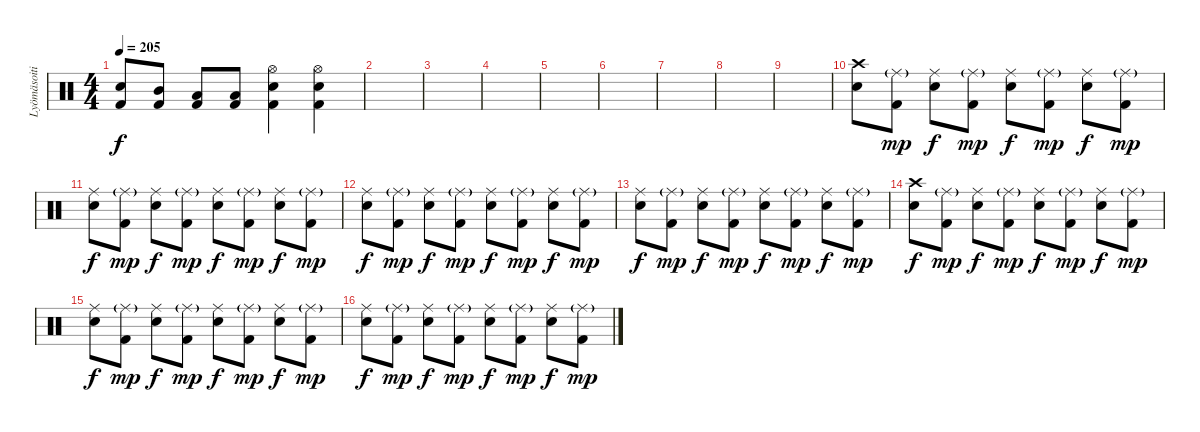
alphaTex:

\track ("Lyömäsoitin" "Lyömäsoiti") {instrument percussion}
\staff {score}
\articulation defaults
\ts (4 4)
\tempo 205
\clef neutral
\ks c
("Kick (hit) 2" "Electric Snare (hit)").8{dy f} ("Kick (hit) 2" "Mid Tom (hit)").8 ("Kick (hit) 2" "Low Tom (hit)").8 ("Kick (hit) 2" "Low Floor Tom (hit)").8 ("Kick (hit) 2" "Electric Snare (hit)" "Hi-Hat (open)").4 ("Kick (hit) 2" "Electric Snare (hit)" "Hi-Hat (open)").4 |
|
|
|
|
|
|
|
|
("Electric Snare (hit)" "Crash high (hit)").8 ("Kick (hit) 2" "Ride (middle)"{g}).8{dy mp} ("Electric Snare (hit)" "Ride (middle)").8{dy f} ("Kick (hit) 2" "Ride (middle)"{g}).8{dy mp} ("Electric Snare (hit)" "Ride (middle)").8{dy f} ("Kick (hit) 2" "Ride (middle)"{g}).8{dy mp} ("Electric Snare (hit)" "Ride (middle)").8{dy f} ("Kick (hit) 2" "Ride (middle)"{g}).8{dy mp} |
("Electric Snare (hit)" "Ride (middle)").8{dy f} ("Kick (hit) 2" "Ride (middle)"{g}).8{dy mp} ("Electric Snare (hit)" "Ride (middle)").8{dy f} ("Kick (hit) 2" "Ride (middle)"{g}).8{dy mp} ("Electric Snare (hit)" "Ride (middle)").8{dy f} ("Kick (hit) 2" "Ride (middle)"{g}).8{dy mp} ("Electric Snare (hit)" "Ride (middle)").8{dy f} ("Kick (hit) 2" "Ride (middle)"{g}).8{dy mp} |
("Electric Snare (hit)" "Ride (middle)").8{dy f} ("Kick (hit) 2" "Ride (middle)"{g}).8{dy mp} ("Electric Snare (hit)" "Ride (middle)").8{dy f} ("Kick (hit) 2" "Ride (middle)"{g}).8{dy mp} ("Electric Snare (hit)" "Ride (middle)").8{dy f} ("Kick (hit) 2" "Ride (middle)"{g}).8{dy mp} ("Electric Snare (hit)" "Ride (middle)").8{dy f} ("Kick (hit) 2" "Ride (middle)"{g}).8{dy mp} |
("Electric Snare (hit)" "Ride (middle)").8{dy f} ("Kick (hit) 2" "Ride (middle)"{g}).8{dy mp} ("Electric Snare (hit)" "Ride (middle)").8{dy f} ("Kick (hit) 2" "Ride (middle)"{g}).8{dy mp} ("Electric Snare (hit)" "Ride (middle)").8{dy f} ("Kick (hit) 2" "Ride (middle)"{g}).8{dy mp} ("Electric Snare (hit)" "Ride (middle)").8{dy f} ("Kick (hit) 2" "Ride (middle)"{g}).8{dy mp} |
("Electric Snare (hit)" "Crash high (hit)").8{dy f} ("Kick (hit) 2" "Ride (middle)"{g}).8{dy mp} ("Electric Snare (hit)" "Ride (middle)").8{dy f} ("Kick (hit) 2" "Ride (middle)"{g}).8{dy mp} ("Electric Snare (hit)" "Ride (middle)").8{dy f} ("Kick (hit) 2" "Ride (middle)"{g}).8{dy mp} ("Electric Snare (hit)" "Ride (middle)").8{dy f} ("Kick (hit) 2" "Ride (middle)"{g}).8{dy mp} |
("Electric Snare (hit)" "Ride (middle)").8{dy f} ("Kick (hit) 2" "Ride (middle)"{g}).8{dy mp} ("Electric Snare (hit)" "Ride (middle)").8{dy f} ("Kick (hit) 2" "Ride (middle)"{g}).8{dy mp} ("Electric Snare (hit)" "Ride (middle)").8{dy f} ("Kick (hit) 2" "Ride (middle)"{g}).8{dy mp} ("Electric Snare (hit)" "Ride (middle)").8{dy f} ("Kick (hit) 2" "Ride (middle)"{g}).8{dy mp} |
("Electric Snare (hit)" "Ride (middle)").8{dy f} ("Kick (hit) 2" "Ride (middle)"{g}).8{dy mp} ("Electric Snare (hit)" "Ride (middle)").8{dy f} ("Kick (hit) 2" "Ride (middle)"{g}).8{dy mp} ("Electric Snare (hit)" "Ride (middle)").8{dy f} ("Kick (hit) 2" "Ride (middle)"{g}).8{dy mp} ("Electric Snare (hit)" "Ride (middle)").8{dy f} ("Kick (hit) 2" "Ride (middle)"{g}).8{dy mp}
